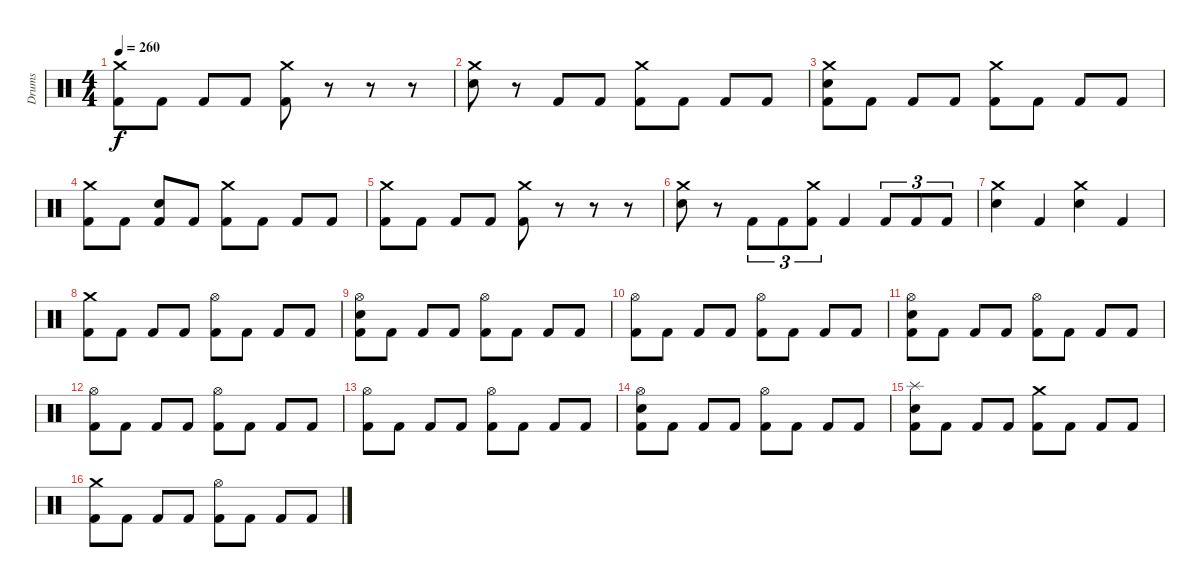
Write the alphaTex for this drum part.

\track ("Drums" "Drums") {instrument percussion}
\staff {score}
\articulation defaults
\ts (4 4)
\tempo 260
\clef neutral
\ks c
("Crash medium (hit)" "Kick (hit) 2").8{dy f} "Kick (hit) 2".8 "Kick (hit) 2".8 "Kick (hit) 2".8 ("Crash medium (hit)" "Kick (hit) 2").8 r.8 r.8 r.8 |
("Crash medium (hit)" "Snare (hit) 2").8 r.8 "Kick (hit) 2".8 "Kick (hit) 2".8 ("Crash medium (hit)" "Kick (hit) 2").8 "Kick (hit) 2".8 "Kick (hit) 2".8 "Kick (hit) 2".8 |
("Crash medium (hit)" "Snare (hit) 2" "Kick (hit) 2").8 "Kick (hit) 2".8 "Kick (hit) 2".8 "Kick (hit) 2".8 ("Crash medium (hit)" "Kick (hit) 2").8 "Kick (hit) 2".8 "Kick (hit) 2".8 "Kick (hit) 2".8 |
("Crash medium (hit)" "Kick (hit) 2").8 "Kick (hit) 2".8 ("Snare (hit) 2" "Kick (hit) 2").8 "Kick (hit) 2".8 ("Crash medium (hit)" "Kick (hit) 2").8 "Kick (hit) 2".8 "Kick (hit) 2".8 "Kick (hit) 2".8 |
("Crash medium (hit)" "Kick (hit) 2").8 "Kick (hit) 2".8 "Kick (hit) 2".8 "Kick (hit) 2".8 ("Crash medium (hit)" "Kick (hit) 2").8 r.8 r.8 r.8 |
("Crash medium (hit)" "Snare (hit) 2").8 r.8 "Kick (hit) 2".8{tu (3 2)} "Kick (hit) 2".8{tu (3 2)} ("Crash medium (hit)" "Kick (hit) 2").8{tu (3 2)} "Kick (hit) 2".4 "Kick (hit) 2".8{tu (3 2)} "Kick (hit) 2".8{tu (3 2)} "Kick (hit) 2".8{tu (3 2)} |
("Crash medium (hit)" "Snare (hit) 2").4 "Kick (hit) 2".4 ("Crash medium (hit)" "Snare (hit) 2").4 "Kick (hit) 2".4 |
("Crash medium (hit)" "Kick (hit) 2").8 "Kick (hit) 2".8 "Kick (hit) 2".8 "Kick (hit) 2".8 ("Hi-Hat (open)" "Kick (hit) 2").8 "Kick (hit) 2".8 "Kick (hit) 2".8 "Kick (hit) 2".8 |
("Hi-Hat (open)" "Snare (hit) 2" "Kick (hit) 2").8 "Kick (hit) 2".8 "Kick (hit) 2".8 "Kick (hit) 2".8 ("Hi-Hat (open)" "Kick (hit) 2").8 "Kick (hit) 2".8 "Kick (hit) 2".8 "Kick (hit) 2".8 |
("Hi-Hat (open)" "Kick (hit) 2").8 "Kick (hit) 2".8 "Kick (hit) 2".8 "Kick (hit) 2".8 ("Hi-Hat (open)" "Kick (hit) 2").8 "Kick (hit) 2".8 "Kick (hit) 2".8 "Kick (hit) 2".8 |
("Hi-Hat (open)" "Snare (hit) 2" "Kick (hit) 2").8 "Kick (hit) 2".8 "Kick (hit) 2".8 "Kick (hit) 2".8 ("Hi-Hat (open)" "Kick (hit) 2").8 "Kick (hit) 2".8 "Kick (hit) 2".8 "Kick (hit) 2".8 |
("Hi-Hat (open)" "Kick (hit) 2").8 "Kick (hit) 2".8 "Kick (hit) 2".8 "Kick (hit) 2".8 ("Hi-Hat (open)" "Kick (hit) 2").8 "Kick (hit) 2".8 "Kick (hit) 2".8 "Kick (hit) 2".8 |
("Hi-Hat (open)" "Kick (hit) 2").8 "Kick (hit) 2".8 "Kick (hit) 2".8 "Kick (hit) 2".8 ("Hi-Hat (open)" "Kick (hit) 2").8 "Kick (hit) 2".8 "Kick (hit) 2".8 "Kick (hit) 2".8 |
("Hi-Hat (open)" "Snare (hit) 2" "Kick (hit) 2").8 "Kick (hit) 2".8 "Kick (hit) 2".8 "Kick (hit) 2".8 ("Hi-Hat (open)" "Kick (hit) 2").8 "Kick (hit) 2".8 "Kick (hit) 2".8 "Kick (hit) 2".8 |
("Splash (hit)" "Snare (hit) 2" "Kick (hit) 2").8 "Kick (hit) 2".8 "Kick (hit) 2".8 "Kick (hit) 2".8 ("Crash medium (hit)" "Kick (hit) 2").8 "Kick (hit) 2".8 "Kick (hit) 2".8 "Kick (hit) 2".8 |
("Crash medium (hit)" "Kick (hit) 2").8 "Kick (hit) 2".8 "Kick (hit) 2".8 "Kick (hit) 2".8 ("Hi-Hat (open)" "Kick (hit) 2").8 "Kick (hit) 2".8 "Kick (hit) 2".8 "Kick (hit) 2".8
